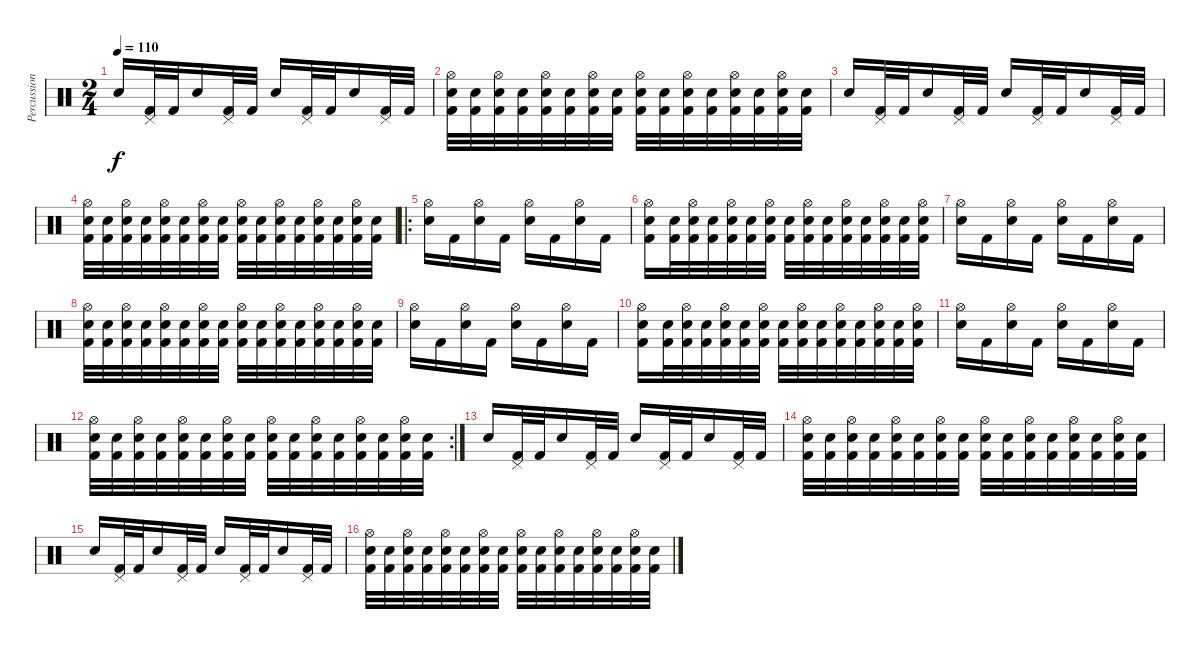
\track ("Percussion" "Percussion") {instrument percussion}
\staff {score}
\articulation defaults
\ts (2 4)
\tempo 110
\clef neutral
\ks c "Snare (hit) 2".16{dy f}
("Pedal Hi-Hat (hit)" "Kick (hit) 2").32 "Kick (hit) 2".32 "Snare (hit) 2".16 ("Pedal Hi-Hat (hit)" "Kick (hit) 2").32 "Kick (hit) 2".32 "Snare (hit) 2".16 ("Pedal Hi-Hat (hit)" "Kick (hit) 2").32 "Kick (hit) 2".32 "Snare (hit) 2".16 ("Pedal Hi-Hat (hit)" "Kick (hit) 2").32 "Kick (hit) 2".32 |
("Snare (hit) 2" "Hi-Hat (open)" "Kick (hit) 2").32 ("Snare (hit) 2" "Kick (hit) 2").32 ("Snare (hit) 2" "Hi-Hat (open)" "Kick (hit) 2").32 ("Snare (hit) 2" "Kick (hit) 2").32 ("Snare (hit) 2" "Hi-Hat (open)" "Kick (hit) 2").32 ("Snare (hit) 2" "Kick (hit) 2").32 ("Snare (hit) 2" "Hi-Hat (open)" "Kick (hit) 2").32 ("Snare (hit) 2" "Kick (hit) 2").32 ("Snare (hit) 2" "Hi-Hat (open)" "Kick (hit) 2").32 ("Snare (hit) 2" "Kick (hit) 2").32 ("Snare (hit) 2" "Hi-Hat (open)" "Kick (hit) 2").32 ("Snare (hit) 2" "Kick (hit) 2").32 ("Snare (hit) 2" "Hi-Hat (open)" "Kick (hit) 2").32 ("Snare (hit) 2" "Kick (hit) 2").32 ("Snare (hit) 2" "Hi-Hat (open)" "Kick (hit) 2").32 ("Snare (hit) 2" "Kick (hit) 2").32 |
"Snare (hit) 2".16 ("Pedal Hi-Hat (hit)" "Kick (hit) 2").32 "Kick (hit) 2".32 "Snare (hit) 2".16 ("Pedal Hi-Hat (hit)" "Kick (hit) 2").32 "Kick (hit) 2".32 "Snare (hit) 2".16 ("Pedal Hi-Hat (hit)" "Kick (hit) 2").32 "Kick (hit) 2".32 "Snare (hit) 2".16 ("Pedal Hi-Hat (hit)" "Kick (hit) 2").32 "Kick (hit) 2".32 |
("Snare (hit) 2" "Hi-Hat (open)" "Kick (hit) 2").32 ("Snare (hit) 2" "Kick (hit) 2").32 ("Snare (hit) 2" "Hi-Hat (open)" "Kick (hit) 2").32 ("Snare (hit) 2" "Kick (hit) 2").32 ("Snare (hit) 2" "Hi-Hat (open)" "Kick (hit) 2").32 ("Snare (hit) 2" "Kick (hit) 2").32 ("Snare (hit) 2" "Hi-Hat (open)" "Kick (hit) 2").32 ("Snare (hit) 2" "Kick (hit) 2").32 ("Snare (hit) 2" "Hi-Hat (open)" "Kick (hit) 2").32 ("Snare (hit) 2" "Kick (hit) 2").32 ("Snare (hit) 2" "Hi-Hat (open)" "Kick (hit) 2").32 ("Snare (hit) 2" "Kick (hit) 2").32 ("Snare (hit) 2" "Hi-Hat (open)" "Kick (hit) 2").32 ("Snare (hit) 2" "Kick (hit) 2").32 ("Snare (hit) 2" "Hi-Hat (open)" "Kick (hit) 2").32 ("Snare (hit) 2" "Kick (hit) 2").32 |
\ro
("Hi-Hat (open)" "Snare (hit) 2").16 "Kick (hit) 2".16 ("Hi-Hat (open)" "Snare (hit) 2").16 "Kick (hit) 2".16 ("Hi-Hat (open)" "Snare (hit) 2").16 "Kick (hit) 2".16 ("Hi-Hat (open)" "Snare (hit) 2").16 "Kick (hit) 2".16 |
("Snare (hit) 2" "Hi-Hat (open)" "Kick (hit) 2").16 ("Snare (hit) 2" "Kick (hit) 2").32 ("Snare (hit) 2" "Hi-Hat (open)" "Kick (hit) 2").32 ("Snare (hit) 2" "Kick (hit) 2").32 ("Snare (hit) 2" "Hi-Hat (open)" "Kick (hit) 2").32 ("Snare (hit) 2" "Kick (hit) 2").32 ("Snare (hit) 2" "Hi-Hat (open)" "Kick (hit) 2").32 ("Snare (hit) 2" "Kick (hit) 2").32 ("Snare (hit) 2" "Hi-Hat (open)" "Kick (hit) 2").32 ("Snare (hit) 2" "Kick (hit) 2").32 ("Snare (hit) 2" "Hi-Hat (open)" "Kick (hit) 2").32 ("Snare (hit) 2" "Kick (hit) 2").32 ("Snare (hit) 2" "Hi-Hat (open)" "Kick (hit) 2").32 ("Snare (hit) 2" "Kick (hit) 2").32 ("Snare (hit) 2" "Hi-Hat (open)" "Kick (hit) 2").32 |
("Hi-Hat (open)" "Snare (hit) 2").16 "Kick (hit) 2".16 ("Hi-Hat (open)" "Snare (hit) 2").16 "Kick (hit) 2".16 ("Hi-Hat (open)" "Snare (hit) 2").16 "Kick (hit) 2".16 ("Hi-Hat (open)" "Snare (hit) 2").16 "Kick (hit) 2".16 |
("Snare (hit) 2" "Hi-Hat (open)" "Kick (hit) 2").32 ("Snare (hit) 2" "Kick (hit) 2").32 ("Snare (hit) 2" "Hi-Hat (open)" "Kick (hit) 2").32 ("Snare (hit) 2" "Kick (hit) 2").32 ("Snare (hit) 2" "Hi-Hat (open)" "Kick (hit) 2").32 ("Snare (hit) 2" "Kick (hit) 2").32 ("Snare (hit) 2" "Hi-Hat (open)" "Kick (hit) 2").32 ("Snare (hit) 2" "Kick (hit) 2").32 ("Snare (hit) 2" "Hi-Hat (open)" "Kick (hit) 2").32 ("Snare (hit) 2" "Kick (hit) 2").32 ("Snare (hit) 2" "Hi-Hat (open)" "Kick (hit) 2").32 ("Snare (hit) 2" "Kick (hit) 2").32 ("Snare (hit) 2" "Hi-Hat (open)" "Kick (hit) 2").32 ("Snare (hit) 2" "Kick (hit) 2").32 ("Snare (hit) 2" "Hi-Hat (open)" "Kick (hit) 2").32 ("Snare (hit) 2" "Kick (hit) 2").32 |
("Hi-Hat (open)" "Snare (hit) 2").16 "Kick (hit) 2".16 ("Hi-Hat (open)" "Snare (hit) 2").16 "Kick (hit) 2".16 ("Hi-Hat (open)" "Snare (hit) 2").16 "Kick (hit) 2".16 ("Hi-Hat (open)" "Snare (hit) 2").16 "Kick (hit) 2".16 |
("Snare (hit) 2" "Hi-Hat (open)" "Kick (hit) 2").16 ("Snare (hit) 2" "Kick (hit) 2").32 ("Snare (hit) 2" "Hi-Hat (open)" "Kick (hit) 2").32 ("Snare (hit) 2" "Kick (hit) 2").32 ("Snare (hit) 2" "Hi-Hat (open)" "Kick (hit) 2").32 ("Snare (hit) 2" "Kick (hit) 2").32 ("Snare (hit) 2" "Hi-Hat (open)" "Kick (hit) 2").32 ("Snare (hit) 2" "Kick (hit) 2").32 ("Snare (hit) 2" "Hi-Hat (open)" "Kick (hit) 2").32 ("Snare (hit) 2" "Kick (hit) 2").32 ("Snare (hit) 2" "Hi-Hat (open)" "Kick (hit) 2").32 ("Snare (hit) 2" "Kick (hit) 2").32 ("Snare (hit) 2" "Hi-Hat (open)" "Kick (hit) 2").32 ("Snare (hit) 2" "Kick (hit) 2").32 ("Snare (hit) 2" "Hi-Hat (open)" "Kick (hit) 2").32 |
("Hi-Hat (open)" "Snare (hit) 2").16 "Kick (hit) 2".16 ("Hi-Hat (open)" "Snare (hit) 2").16 "Kick (hit) 2".16 ("Hi-Hat (open)" "Snare (hit) 2").16 "Kick (hit) 2".16 ("Hi-Hat (open)" "Snare (hit) 2").16 "Kick (hit) 2".16 |
\rc 2
("Snare (hit) 2" "Hi-Hat (open)" "Kick (hit) 2").32 ("Snare (hit) 2" "Kick (hit) 2").32 ("Snare (hit) 2" "Hi-Hat (open)" "Kick (hit) 2").32 ("Snare (hit) 2" "Kick (hit) 2").32 ("Snare (hit) 2" "Hi-Hat (open)" "Kick (hit) 2").32 ("Snare (hit) 2" "Kick (hit) 2").32 ("Snare (hit) 2" "Hi-Hat (open)" "Kick (hit) 2").32 ("Snare (hit) 2" "Kick (hit) 2").32 ("Snare (hit) 2" "Hi-Hat (open)" "Kick (hit) 2").32 ("Snare (hit) 2" "Kick (hit) 2").32 ("Snare (hit) 2" "Hi-Hat (open)" "Kick (hit) 2").32 ("Snare (hit) 2" "Kick (hit) 2").32 ("Snare (hit) 2" "Hi-Hat (open)" "Kick (hit) 2").32 ("Snare (hit) 2" "Kick (hit) 2").32 ("Snare (hit) 2" "Hi-Hat (open)" "Kick (hit) 2").32 ("Snare (hit) 2" "Kick (hit) 2").32 |
"Snare (hit) 2".16 ("Pedal Hi-Hat (hit)" "Kick (hit) 2").32 "Kick (hit) 2".32 "Snare (hit) 2".16 ("Pedal Hi-Hat (hit)" "Kick (hit) 2").32 "Kick (hit) 2".32 "Snare (hit) 2".16 ("Pedal Hi-Hat (hit)" "Kick (hit) 2").32 "Kick (hit) 2".32 "Snare (hit) 2".16 ("Pedal Hi-Hat (hit)" "Kick (hit) 2").32 "Kick (hit) 2".32 |
("Snare (hit) 2" "Hi-Hat (open)" "Kick (hit) 2").32 ("Snare (hit) 2" "Kick (hit) 2").32 ("Snare (hit) 2" "Hi-Hat (open)" "Kick (hit) 2").32 ("Snare (hit) 2" "Kick (hit) 2").32 ("Snare (hit) 2" "Hi-Hat (open)" "Kick (hit) 2").32 ("Snare (hit) 2" "Kick (hit) 2").32 ("Snare (hit) 2" "Hi-Hat (open)" "Kick (hit) 2").32 ("Snare (hit) 2" "Kick (hit) 2").32 ("Snare (hit) 2" "Hi-Hat (open)" "Kick (hit) 2").32 ("Snare (hit) 2" "Kick (hit) 2").32 ("Snare (hit) 2" "Hi-Hat (open)" "Kick (hit) 2").32 ("Snare (hit) 2" "Kick (hit) 2").32 ("Snare (hit) 2" "Hi-Hat (open)" "Kick (hit) 2").32 ("Snare (hit) 2" "Kick (hit) 2").32 ("Snare (hit) 2" "Hi-Hat (open)" "Kick (hit) 2").32 ("Snare (hit) 2" "Kick (hit) 2").32 |
"Snare (hit) 2".16 ("Pedal Hi-Hat (hit)" "Kick (hit) 2").32 "Kick (hit) 2".32 "Snare (hit) 2".16 ("Pedal Hi-Hat (hit)" "Kick (hit) 2").32 "Kick (hit) 2".32 "Snare (hit) 2".16 ("Pedal Hi-Hat (hit)" "Kick (hit) 2").32 "Kick (hit) 2".32 "Snare (hit) 2".16 ("Pedal Hi-Hat (hit)" "Kick (hit) 2").32 "Kick (hit) 2".32 |
("Snare (hit) 2" "Hi-Hat (open)" "Kick (hit) 2").32 ("Snare (hit) 2" "Kick (hit) 2").32 ("Snare (hit) 2" "Hi-Hat (open)" "Kick (hit) 2").32 ("Snare (hit) 2" "Kick (hit) 2").32 ("Snare (hit) 2" "Hi-Hat (open)" "Kick (hit) 2").32 ("Snare (hit) 2" "Kick (hit) 2").32 ("Snare (hit) 2" "Hi-Hat (open)" "Kick (hit) 2").32 ("Snare (hit) 2" "Kick (hit) 2").32 ("Snare (hit) 2" "Hi-Hat (open)" "Kick (hit) 2").32 ("Snare (hit) 2" "Kick (hit) 2").32 ("Snare (hit) 2" "Hi-Hat (open)" "Kick (hit) 2").32 ("Snare (hit) 2" "Kick (hit) 2").32 ("Snare (hit) 2" "Hi-Hat (open)" "Kick (hit) 2").32 ("Snare (hit) 2" "Kick (hit) 2").32 ("Snare (hit) 2" "Hi-Hat (open)" "Kick (hit) 2").32 ("Snare (hit) 2" "Kick (hit) 2").32
